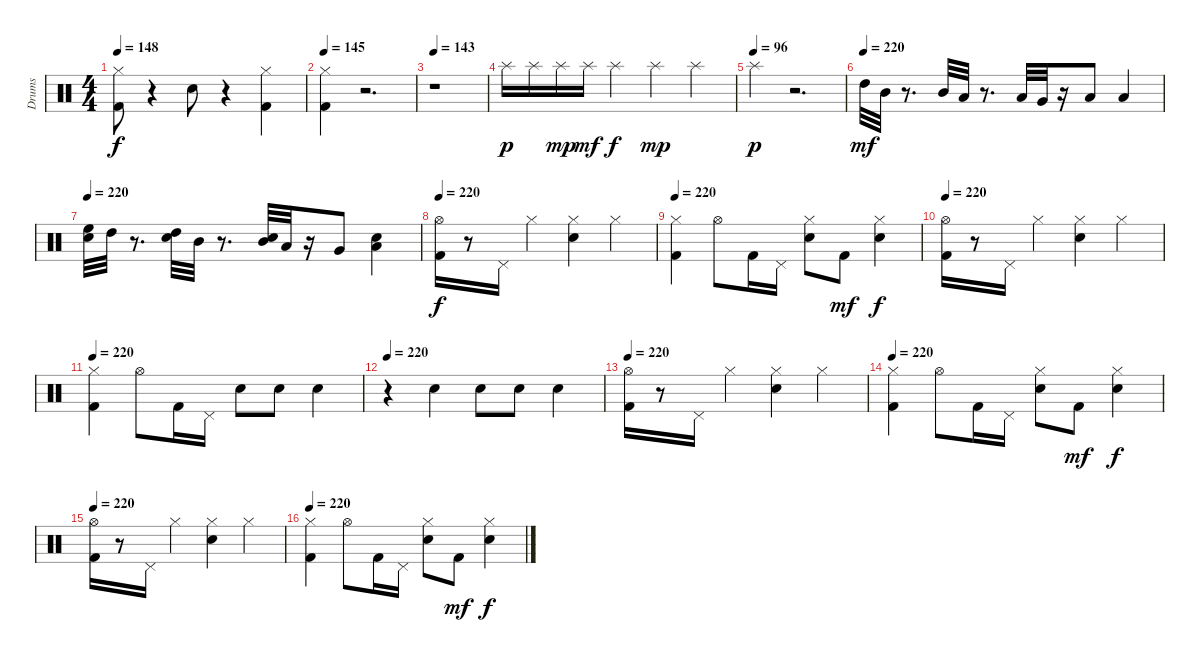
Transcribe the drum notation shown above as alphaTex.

\track ("Drums" "Drums") {instrument percussion}
\staff {score}
\articulation defaults
\ts (4 4)
\tempo 148
\clef neutral
\ks c
("Kick (hit) 2" "Hi-Hat (closed)").8{dy f} r.4 "Snare (hit) 2".8 r.4 ("Kick (hit) 2" "Hi-Hat (closed)").4 |
\tempo 145
("Kick (hit) 2" "Hi-Hat (closed)").4 r.2{d} |
\tempo 143
r.1 |
"Splash (hit)".16{dy p} "Splash (hit)".16 "Splash (hit)".16{dy mp} "Splash (hit)".16{dy mf} "Splash (hit)".4{dy f} "Splash (hit)".4{dy mp} "Splash (hit)".4 |
\tempo (96)
"Splash (hit)".4{dy p} r.2{d} |
\tempo (220)
"High Tom (hit)".32{dy mf} "Mid Tom (hit)".32 r.8{d} "Mid Tom (hit)".32 "Low Tom (hit)".32 r.8{d} "Low Tom (hit)".32 "Very Low Tom (hit)".32 r.16 "Low Floor Tom (hit)".8 "Low Floor Tom (hit)".4 |
\tempo 220
("Snare (hit) 2" "High Floor Tom (hit)").32 "High Tom (hit)".32 r.8{d} ("Snare (hit) 2" "High Tom (hit)").32 "Mid Tom (hit)".32 r.8{d} ("Snare (hit) 2" "Mid Tom (hit)").32 "Low Tom (hit)".32 r.16 "Very Low Tom (hit)".8 ("Snare (hit) 2" "Low Floor Tom (hit)").4 |
\tempo 220
("Kick (hit) 2" "Hi-Hat (open)").16{dy f} r.8 "Pedal Hi-Hat (hit)".16 "Hi-Hat (closed)".4 ("Snare (hit) 2" "Hi-Hat (closed)").4 "Hi-Hat (closed)".4 |
\tempo 220
("Kick (hit) 2" "Hi-Hat (closed)").4 "Hi-Hat (open)".8 "Kick (hit) 2".16 "Pedal Hi-Hat (hit)".16 ("Snare (hit) 2" "Hi-Hat (closed)").8 "Kick (hit) 2".8{dy mf} ("Snare (hit) 2" "Hi-Hat (closed)").4{dy f} |
\tempo 220
("Kick (hit) 2" "Hi-Hat (open)").16 r.8 "Pedal Hi-Hat (hit)".16 "Hi-Hat (closed)".4 ("Snare (hit) 2" "Hi-Hat (closed)").4 "Hi-Hat (closed)".4 |
\tempo 220
("Kick (hit) 2" "Hi-Hat (closed)").4 "Hi-Hat (open)".8 "Kick (hit) 2".16 "Pedal Hi-Hat (hit)".16 "Snare (hit) 2".8 "Snare (hit) 2".8 "Snare (hit) 2".4 |
\tempo 220
r.4 "Snare (hit) 2".4 "Snare (hit) 2".8 "Snare (hit) 2".8 "Snare (hit) 2".4 |
\tempo 220
("Kick (hit) 2" "Hi-Hat (open)").16 r.8 "Pedal Hi-Hat (hit)".16 "Hi-Hat (closed)".4 ("Snare (hit) 2" "Hi-Hat (closed)").4 "Hi-Hat (closed)".4 |
\tempo 220
("Kick (hit) 2" "Hi-Hat (closed)").4 "Hi-Hat (open)".8 "Kick (hit) 2".16 "Pedal Hi-Hat (hit)".16 ("Snare (hit) 2" "Hi-Hat (closed)").8 "Kick (hit) 2".8{dy mf} ("Snare (hit) 2" "Hi-Hat (closed)").4{dy f} |
\tempo 220
("Kick (hit) 2" "Hi-Hat (open)").16 r.8 "Pedal Hi-Hat (hit)".16 "Hi-Hat (closed)".4 ("Snare (hit) 2" "Hi-Hat (closed)").4 "Hi-Hat (closed)".4 |
\tempo 220
("Kick (hit) 2" "Hi-Hat (closed)").4 "Hi-Hat (open)".8 "Kick (hit) 2".16 "Pedal Hi-Hat (hit)".16 ("Snare (hit) 2" "Hi-Hat (closed)").8 "Kick (hit) 2".8{dy mf} ("Snare (hit) 2" "Hi-Hat (closed)").4{dy f}
